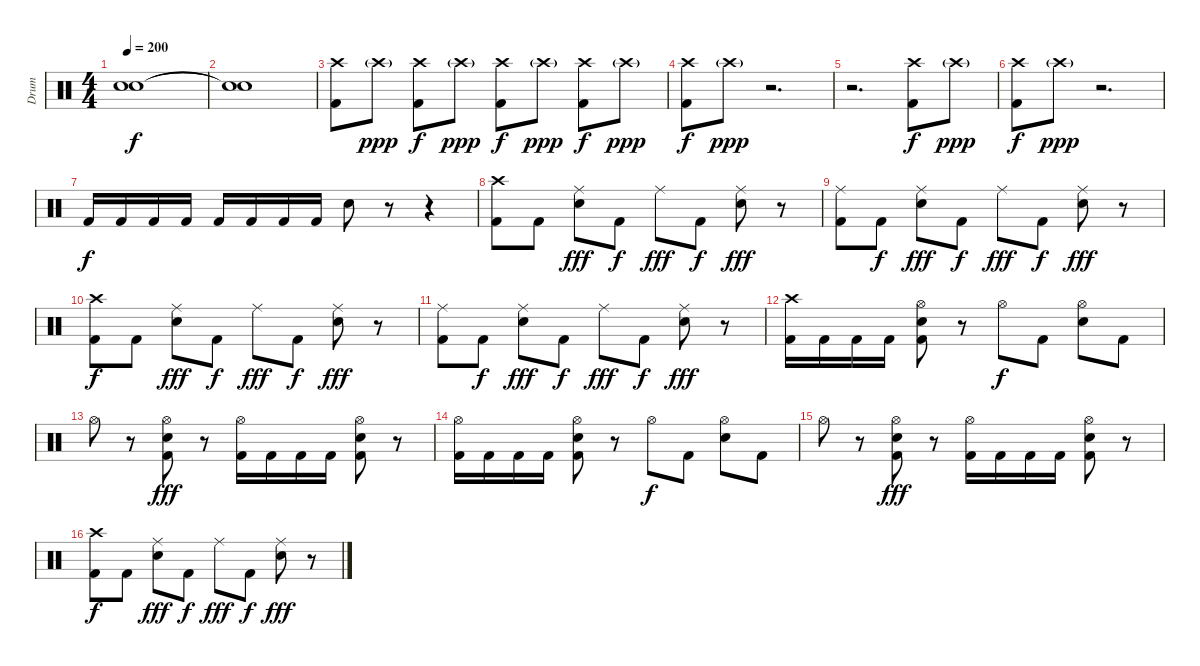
\track ("Drum" "Drum") {instrument percussion}
\staff {score}
\articulation defaults
\ts (4 4)
\tempo 200
\clef neutral
\ks c
("Snare (hit)"{t} "Snare (hit)"{t}).1{dy f} |
("Snare (hit)"{t} "Snare (hit)"{t}).1 |
("Crash high (hit)" "Kick (hit) 2").8 "Crash high (hit)"{g}.8{dy ppp} ("Crash high (hit)" "Kick (hit) 2").8{dy f} "Crash high (hit)"{g}.8{dy ppp} ("Crash high (hit)" "Kick (hit) 2").8{dy f} "Crash high (hit)"{g}.8{dy ppp} ("Crash high (hit)" "Kick (hit) 2").8{dy f} "Crash high (hit)"{g}.8{dy ppp} |
("Crash high (hit)" "Kick (hit) 2").8{dy f} "Crash high (hit)"{g}.8{dy ppp} r.2{d} |
r.2{d} ("Crash high (hit)" "Kick (hit) 2").8{dy f} "Crash high (hit)"{g}.8{dy ppp} |
("Crash high (hit)" "Kick (hit) 2").8{dy f} "Crash high (hit)"{g}.8{dy ppp} r.2{d} |
"Kick (hit) 2".16{dy f} "Kick (hit) 2".16 "Kick (hit) 2".16 "Kick (hit) 2".16 "Kick (hit) 2".16 "Kick (hit) 2".16 "Kick (hit) 2".16 "Kick (hit) 2".16 "Electric Snare (hit)".8 r.8 r.4 |
("Crash high (hit)" "Kick (hit) 2").8 "Kick (hit) 2".8 ("Ride (middle)" "Electric Snare (hit)").8{dy fff} "Kick (hit) 2".8{dy f} "Ride (middle)".8{dy fff} "Kick (hit) 2".8{dy f} ("Ride (middle)" "Electric Snare (hit)").8{dy fff} r.8 |
("Ride (middle)" "Kick (hit) 2").8 "Kick (hit) 2".8{dy f} ("Ride (middle)" "Electric Snare (hit)").8{dy fff} "Kick (hit) 2".8{dy f} "Ride (middle)".8{dy fff} "Kick (hit) 2".8{dy f} ("Ride (middle)" "Electric Snare (hit)").8{dy fff} r.8 |
("Crash high (hit)" "Kick (hit) 2").8{dy f} "Kick (hit) 2".8 ("Ride (middle)" "Electric Snare (hit)").8{dy fff} "Kick (hit) 2".8{dy f} "Ride (middle)".8{dy fff} "Kick (hit) 2".8{dy f} ("Ride (middle)" "Electric Snare (hit)").8{dy fff} r.8 |
("Ride (middle)" "Kick (hit) 2").8 "Kick (hit) 2".8{dy f} ("Ride (middle)" "Electric Snare (hit)").8{dy fff} "Kick (hit) 2".8{dy f} "Ride (middle)".8{dy fff} "Kick (hit) 2".8{dy f} ("Ride (middle)" "Electric Snare (hit)").8{dy fff} r.8 |
("Crash high (hit)" "Kick (hit) 2").16 "Kick (hit) 2".16 "Kick (hit) 2".16 "Kick (hit) 2".16 ("Hi-Hat (open)" "Electric Snare (hit)" "Kick (hit) 2").8 r.8 "Hi-Hat (open)".8{dy f} "Kick (hit) 2".8 ("Hi-Hat (open)" "Electric Snare (hit)").8 "Kick (hit) 2".8 |
"Hi-Hat (open)".8 r.8 ("Hi-Hat (open)" "Electric Snare (hit)" "Kick (hit) 2").8{dy fff} r.8 ("Hi-Hat (open)" "Kick (hit) 2").16 "Kick (hit) 2".16 "Kick (hit) 2".16 "Kick (hit) 2".16 ("Hi-Hat (open)" "Electric Snare (hit)" "Kick (hit) 2").8 r.8 |
("Hi-Hat (open)" "Kick (hit) 2").16 "Kick (hit) 2".16 "Kick (hit) 2".16 "Kick (hit) 2".16 ("Hi-Hat (open)" "Electric Snare (hit)" "Kick (hit) 2").8 r.8 "Hi-Hat (open)".8{dy f} "Kick (hit) 2".8 ("Hi-Hat (open)" "Electric Snare (hit)").8 "Kick (hit) 2".8 |
"Hi-Hat (open)".8 r.8 ("Hi-Hat (open)" "Electric Snare (hit)" "Kick (hit) 2").8{dy fff} r.8 ("Hi-Hat (open)" "Kick (hit) 2").16 "Kick (hit) 2".16 "Kick (hit) 2".16 "Kick (hit) 2".16 ("Hi-Hat (open)" "Electric Snare (hit)" "Kick (hit) 2").8 r.8 |
("Crash high (hit)" "Kick (hit) 2").8{dy f} "Kick (hit) 2".8 ("Ride (middle)" "Electric Snare (hit)").8{dy fff} "Kick (hit) 2".8{dy f} "Ride (middle)".8{dy fff} "Kick (hit) 2".8{dy f} ("Ride (middle)" "Electric Snare (hit)").8{dy fff} r.8
